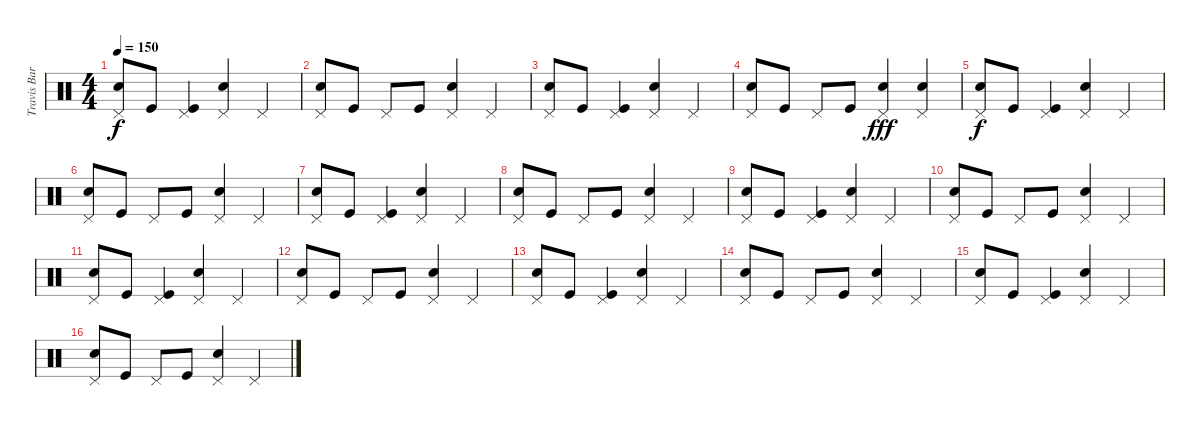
\track ("Travis Barker - Drums" "Travis Bar") {instrument percussion}
\staff {score}
\articulation defaults
\ts (4 4)
\tempo 150
\clef neutral
\ks c
("Pedal Hi-Hat (hit)" "Electric Snare (hit)").8{dy f} "Kick (hit)".8 ("Pedal Hi-Hat (hit)" "Kick (hit)").4 ("Pedal Hi-Hat (hit)" "Electric Snare (hit)").4 "Pedal Hi-Hat (hit)".4 |
("Pedal Hi-Hat (hit)" "Electric Snare (hit)").8 "Kick (hit)".8 "Pedal Hi-Hat (hit)".8 "Kick (hit)".8 ("Pedal Hi-Hat (hit)" "Electric Snare (hit)").4 "Pedal Hi-Hat (hit)".4 |
("Pedal Hi-Hat (hit)" "Electric Snare (hit)").8 "Kick (hit)".8 ("Pedal Hi-Hat (hit)" "Kick (hit)").4 ("Pedal Hi-Hat (hit)" "Electric Snare (hit)").4 "Pedal Hi-Hat (hit)".4 |
("Pedal Hi-Hat (hit)" "Electric Snare (hit)").8 "Kick (hit)".8 "Pedal Hi-Hat (hit)".8 "Kick (hit)".8 ("Pedal Hi-Hat (hit)" "Electric Snare (hit)").4{dy fff volume 16} ("Pedal Hi-Hat (hit)" "Electric Snare (hit)").4 |
("Pedal Hi-Hat (hit)" "Electric Snare (hit)").8{dy f volume 13} "Kick (hit)".8 ("Pedal Hi-Hat (hit)" "Kick (hit)").4 ("Pedal Hi-Hat (hit)" "Electric Snare (hit)").4 "Pedal Hi-Hat (hit)".4 |
("Pedal Hi-Hat (hit)" "Electric Snare (hit)").8 "Kick (hit)".8 "Pedal Hi-Hat (hit)".8 "Kick (hit)".8 ("Pedal Hi-Hat (hit)" "Electric Snare (hit)").4 "Pedal Hi-Hat (hit)".4 |
("Pedal Hi-Hat (hit)" "Electric Snare (hit)").8 "Kick (hit)".8 ("Pedal Hi-Hat (hit)" "Kick (hit)").4 ("Pedal Hi-Hat (hit)" "Electric Snare (hit)").4 "Pedal Hi-Hat (hit)".4 |
("Pedal Hi-Hat (hit)" "Electric Snare (hit)").8 "Kick (hit)".8 "Pedal Hi-Hat (hit)".8 "Kick (hit)".8 ("Pedal Hi-Hat (hit)" "Electric Snare (hit)").4 "Pedal Hi-Hat (hit)".4 |
("Pedal Hi-Hat (hit)" "Electric Snare (hit)").8 "Kick (hit)".8 ("Pedal Hi-Hat (hit)" "Kick (hit)").4 ("Pedal Hi-Hat (hit)" "Electric Snare (hit)").4 "Pedal Hi-Hat (hit)".4 |
("Pedal Hi-Hat (hit)" "Electric Snare (hit)").8 "Kick (hit)".8 "Pedal Hi-Hat (hit)".8 "Kick (hit)".8 ("Pedal Hi-Hat (hit)" "Electric Snare (hit)").4 "Pedal Hi-Hat (hit)".4 |
("Pedal Hi-Hat (hit)" "Electric Snare (hit)").8 "Kick (hit)".8 ("Pedal Hi-Hat (hit)" "Kick (hit)").4 ("Pedal Hi-Hat (hit)" "Electric Snare (hit)").4 "Pedal Hi-Hat (hit)".4 |
("Pedal Hi-Hat (hit)" "Electric Snare (hit)").8 "Kick (hit)".8 "Pedal Hi-Hat (hit)".8 "Kick (hit)".8 ("Pedal Hi-Hat (hit)" "Electric Snare (hit)").4 "Pedal Hi-Hat (hit)".4 |
("Pedal Hi-Hat (hit)" "Electric Snare (hit)").8 "Kick (hit)".8 ("Pedal Hi-Hat (hit)" "Kick (hit)").4 ("Pedal Hi-Hat (hit)" "Electric Snare (hit)").4 "Pedal Hi-Hat (hit)".4 |
("Pedal Hi-Hat (hit)" "Electric Snare (hit)").8 "Kick (hit)".8 "Pedal Hi-Hat (hit)".8 "Kick (hit)".8 ("Pedal Hi-Hat (hit)" "Electric Snare (hit)").4 "Pedal Hi-Hat (hit)".4 |
("Pedal Hi-Hat (hit)" "Electric Snare (hit)").8 "Kick (hit)".8 ("Pedal Hi-Hat (hit)" "Kick (hit)").4 ("Pedal Hi-Hat (hit)" "Electric Snare (hit)").4 "Pedal Hi-Hat (hit)".4 |
("Pedal Hi-Hat (hit)" "Electric Snare (hit)").8 "Kick (hit)".8 "Pedal Hi-Hat (hit)".8 "Kick (hit)".8 ("Pedal Hi-Hat (hit)" "Electric Snare (hit)").4 "Pedal Hi-Hat (hit)".4
